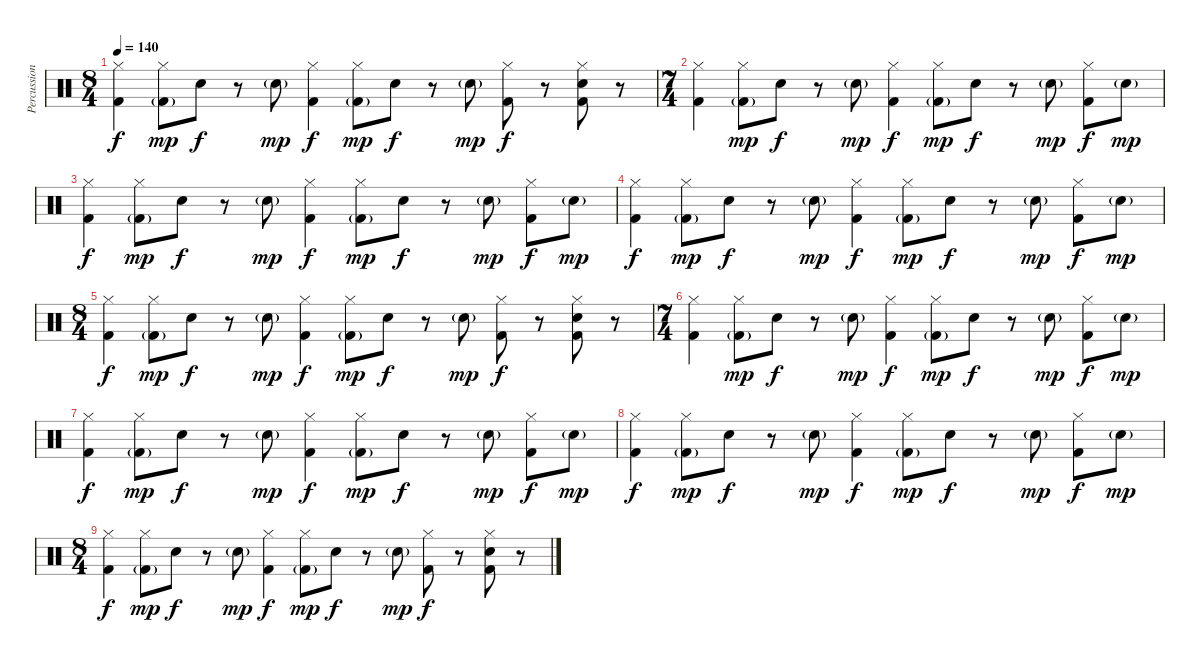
\track ("Percussion" "Percussion") {instrument percussion}
\staff {score}
\articulation defaults
\ts (8 4)
\tempo 140
\clef neutral
\ks c
("Hi-Hat (closed)" "Kick (hit) 2").4{dy f} ("Hi-Hat (closed)" "Kick (hit) 2"{g}).8{dy mp} "Snare (hit) 2".8{dy f} r.8 "Snare (hit) 2"{g}.8{dy mp} ("Hi-Hat (closed)" "Kick (hit) 2").4{dy f} ("Hi-Hat (closed)" "Kick (hit) 2"{g}).8{dy mp} "Snare (hit) 2".8{dy f} r.8 "Snare (hit) 2"{g}.8{dy mp} ("Hi-Hat (closed)" "Kick (hit) 2").8{dy f} r.8 ("Hi-Hat (closed)" "Snare (hit) 2" "Kick (hit) 2").8 r.8 |
\ts (7 4)
("Hi-Hat (closed)" "Kick (hit) 2").4 ("Hi-Hat (closed)" "Kick (hit) 2"{g}).8{dy mp} "Snare (hit) 2".8{dy f} r.8 "Snare (hit) 2"{g}.8{dy mp} ("Hi-Hat (closed)" "Kick (hit) 2").4{dy f} ("Hi-Hat (closed)" "Kick (hit) 2"{g}).8{dy mp} "Snare (hit) 2".8{dy f} r.8 "Snare (hit) 2"{g}.8{dy mp} ("Hi-Hat (closed)" "Kick (hit) 2").8{dy f} "Snare (hit) 2"{g}.8{dy mp} |
("Hi-Hat (closed)" "Kick (hit) 2").4{dy f} ("Hi-Hat (closed)" "Kick (hit) 2"{g}).8{dy mp} "Snare (hit) 2".8{dy f} r.8 "Snare (hit) 2"{g}.8{dy mp} ("Hi-Hat (closed)" "Kick (hit) 2").4{dy f} ("Hi-Hat (closed)" "Kick (hit) 2"{g}).8{dy mp} "Snare (hit) 2".8{dy f} r.8 "Snare (hit) 2"{g}.8{dy mp} ("Hi-Hat (closed)" "Kick (hit) 2").8{dy f} "Snare (hit) 2"{g}.8{dy mp} |
("Hi-Hat (closed)" "Kick (hit) 2").4{dy f} ("Hi-Hat (closed)" "Kick (hit) 2"{g}).8{dy mp} "Snare (hit) 2".8{dy f} r.8 "Snare (hit) 2"{g}.8{dy mp} ("Hi-Hat (closed)" "Kick (hit) 2").4{dy f} ("Hi-Hat (closed)" "Kick (hit) 2"{g}).8{dy mp} "Snare (hit) 2".8{dy f} r.8 "Snare (hit) 2"{g}.8{dy mp} ("Hi-Hat (closed)" "Kick (hit) 2").8{dy f} "Snare (hit) 2"{g}.8{dy mp} |
\ts (8 4)
("Hi-Hat (closed)" "Kick (hit) 2").4{dy f} ("Hi-Hat (closed)" "Kick (hit) 2"{g}).8{dy mp} "Snare (hit) 2".8{dy f} r.8 "Snare (hit) 2"{g}.8{dy mp} ("Hi-Hat (closed)" "Kick (hit) 2").4{dy f} ("Hi-Hat (closed)" "Kick (hit) 2"{g}).8{dy mp} "Snare (hit) 2".8{dy f} r.8 "Snare (hit) 2"{g}.8{dy mp} ("Hi-Hat (closed)" "Kick (hit) 2").8{dy f} r.8 ("Hi-Hat (closed)" "Snare (hit) 2" "Kick (hit) 2").8 r.8 |
\ts (7 4)
("Hi-Hat (closed)" "Kick (hit) 2").4 ("Hi-Hat (closed)" "Kick (hit) 2"{g}).8{dy mp} "Snare (hit) 2".8{dy f} r.8 "Snare (hit) 2"{g}.8{dy mp} ("Hi-Hat (closed)" "Kick (hit) 2").4{dy f} ("Hi-Hat (closed)" "Kick (hit) 2"{g}).8{dy mp} "Snare (hit) 2".8{dy f} r.8 "Snare (hit) 2"{g}.8{dy mp} ("Hi-Hat (closed)" "Kick (hit) 2").8{dy f} "Snare (hit) 2"{g}.8{dy mp} |
("Hi-Hat (closed)" "Kick (hit) 2").4{dy f} ("Hi-Hat (closed)" "Kick (hit) 2"{g}).8{dy mp} "Snare (hit) 2".8{dy f} r.8 "Snare (hit) 2"{g}.8{dy mp} ("Hi-Hat (closed)" "Kick (hit) 2").4{dy f} ("Hi-Hat (closed)" "Kick (hit) 2"{g}).8{dy mp} "Snare (hit) 2".8{dy f} r.8 "Snare (hit) 2"{g}.8{dy mp} ("Hi-Hat (closed)" "Kick (hit) 2").8{dy f} "Snare (hit) 2"{g}.8{dy mp} |
("Hi-Hat (closed)" "Kick (hit) 2").4{dy f} ("Hi-Hat (closed)" "Kick (hit) 2"{g}).8{dy mp} "Snare (hit) 2".8{dy f} r.8 "Snare (hit) 2"{g}.8{dy mp} ("Hi-Hat (closed)" "Kick (hit) 2").4{dy f} ("Hi-Hat (closed)" "Kick (hit) 2"{g}).8{dy mp} "Snare (hit) 2".8{dy f} r.8 "Snare (hit) 2"{g}.8{dy mp} ("Hi-Hat (closed)" "Kick (hit) 2").8{dy f} "Snare (hit) 2"{g}.8{dy mp} |
\ts (8 4)
("Hi-Hat (closed)" "Kick (hit) 2").4{dy f} ("Hi-Hat (closed)" "Kick (hit) 2"{g}).8{dy mp} "Snare (hit) 2".8{dy f} r.8 "Snare (hit) 2"{g}.8{dy mp} ("Hi-Hat (closed)" "Kick (hit) 2").4{dy f} ("Hi-Hat (closed)" "Kick (hit) 2"{g}).8{dy mp} "Snare (hit) 2".8{dy f} r.8 "Snare (hit) 2"{g}.8{dy mp} ("Hi-Hat (closed)" "Kick (hit) 2").8{dy f} r.8 ("Hi-Hat (closed)" "Snare (hit) 2" "Kick (hit) 2").8 r.8
